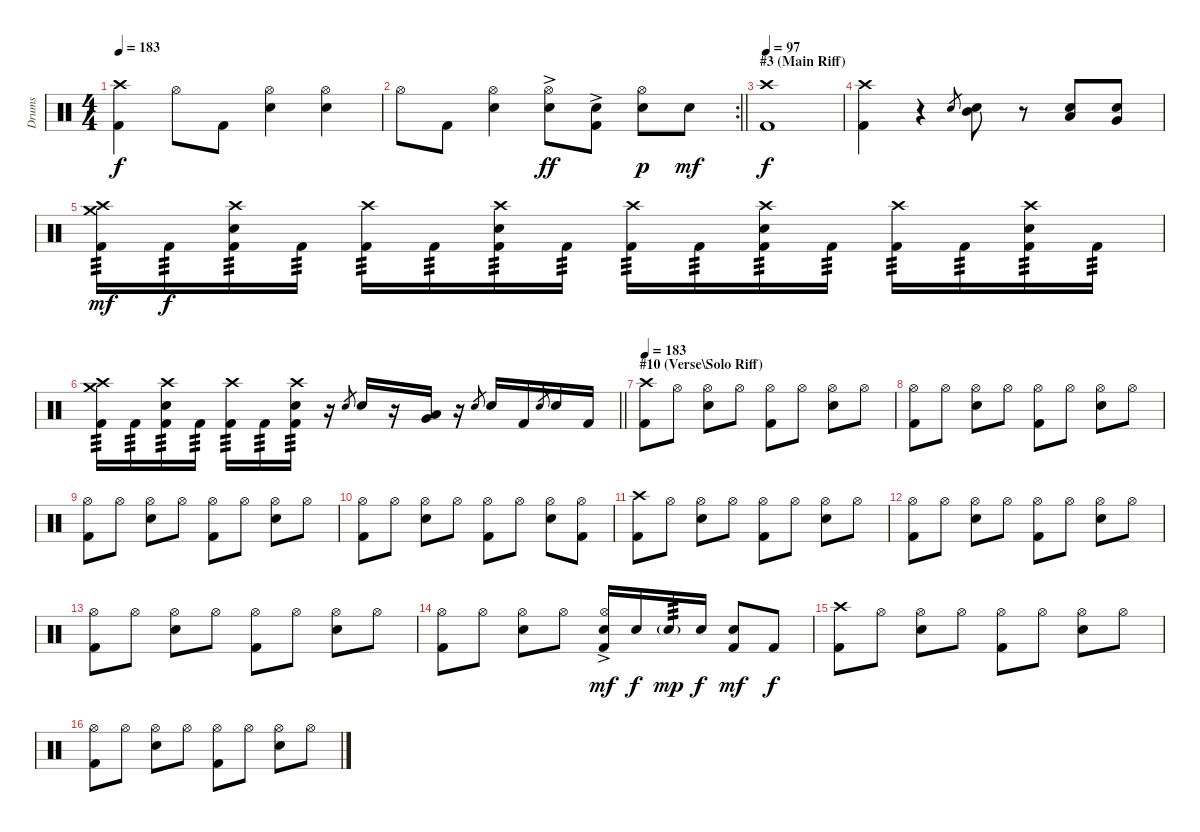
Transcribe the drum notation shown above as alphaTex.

\track ("Drums" "Drums") {instrument percussion}
\staff {score}
\articulation defaults
\ts (4 4)
\tempo 183
\clef neutral
\ks c
("Crash high (hit)" "Kick (hit) 2").4{dy f} "Hi-Hat (open)".8 "Kick (hit) 2".8 ("Hi-Hat (open)" "Electric Snare (hit)").4 ("Hi-Hat (open)" "Electric Snare (hit)").4 |
\rc 2
\barLineRight lightlight "Hi-Hat (open)".8 "Kick (hit) 2".8
("Hi-Hat (open)" "Electric Snare (hit)").4 ("Hi-Hat (open)" "Electric Snare (hit)"{ac}).8{dy ff} ("Electric Snare (hit)"{ac} "Kick (hit) 2").8 ("Hi-Hat (open)" "Electric Snare (hit)").8{dy p} "Electric Snare (hit)".8{dy mf} |
\section ("" "#3 (Main Riff)")
\tempo 97
("Crash high (hit)" "Kick (hit) 2").1{dy f} |
("Crash high (hit)" "Kick (hit) 2").4 r.4 "Electric Snare (hit)".8{gr} ("Electric Snare (hit)" "Mid Tom (hit)").8 r.8 ("Electric Snare (hit)" "Low Tom (hit)").8 ("Electric Snare (hit)" "Very Low Tom (hit)").8 |
("Crash high (hit)" "Crash medium (hit)" "Kick (hit) 2").16{tp 3 dy mf} "Kick (hit) 2".16{tp 3 dy f} ("Crash high (hit)" "Electric Snare (hit)" "Kick (hit) 2").16{tp 3} "Kick (hit) 2".16{tp 3} ("Crash high (hit)" "Kick (hit) 2").16{tp 3} "Kick (hit) 2".16{tp 3} ("Crash high (hit)" "Electric Snare (hit)" "Kick (hit) 2").16{tp 3} "Kick (hit) 2".16{tp 3} ("Crash high (hit)" "Kick (hit) 2").16{tp 3} "Kick (hit) 2".16{tp 3} ("Crash high (hit)" "Electric Snare (hit)" "Kick (hit) 2").16{tp 3} "Kick (hit) 2".16{tp 3} ("Crash high (hit)" "Kick (hit) 2").16{tp 3} "Kick (hit) 2".16{tp 3} ("Crash high (hit)" "Electric Snare (hit)" "Kick (hit) 2").16{tp 3} "Kick (hit) 2".16{tp 3} |
\barLineRight lightlight
("Crash high (hit)" "Crash medium (hit)" "Kick (hit) 2").16{tp 3} "Kick (hit) 2".16{tp 3} ("Crash high (hit)" "Electric Snare (hit)" "Kick (hit) 2").16{tp 3} "Kick (hit) 2".16{tp 3} ("Crash high (hit)" "Kick (hit) 2").16{tp 3} "Kick (hit) 2".16{tp 3} ("Crash high (hit)" "Electric Snare (hit)" "Kick (hit) 2").16{tp 3} r.16 "Electric Snare (hit)".8{gr} "Electric Snare (hit)".16 r.16 ("Very Low Tom (hit)" "Low Tom (hit)").16 r.16 "Electric Snare (hit)".8{gr} "Electric Snare (hit)".16 "Kick (hit) 2".16 "Electric Snare (hit)".8{gr} "Electric Snare (hit)".16 "Kick (hit) 2".16 |
\section ("" "#10 (Verse\\Solo Riff) ")
\tempo 183
("Crash high (hit)" "Kick (hit) 2").8 "Hi-Hat (open)".8 ("Hi-Hat (open)" "Electric Snare (hit)").8 "Hi-Hat (open)".8 ("Hi-Hat (open)" "Kick (hit) 2").8 "Hi-Hat (open)".8 ("Hi-Hat (open)" "Electric Snare (hit)").8 "Hi-Hat (open)".8 |
("Hi-Hat (open)" "Kick (hit) 2").8 "Hi-Hat (open)".8 ("Hi-Hat (open)" "Electric Snare (hit)").8 "Hi-Hat (open)".8 ("Hi-Hat (open)" "Kick (hit) 2").8 "Hi-Hat (open)".8 ("Hi-Hat (open)" "Electric Snare (hit)").8 "Hi-Hat (open)".8 |
("Hi-Hat (open)" "Kick (hit) 2").8 "Hi-Hat (open)".8 ("Hi-Hat (open)" "Electric Snare (hit)").8 "Hi-Hat (open)".8 ("Hi-Hat (open)" "Kick (hit) 2").8 "Hi-Hat (open)".8 ("Hi-Hat (open)" "Electric Snare (hit)").8 "Hi-Hat (open)".8 |
("Hi-Hat (open)" "Kick (hit) 2").8 "Hi-Hat (open)".8 ("Hi-Hat (open)" "Electric Snare (hit)").8 "Hi-Hat (open)".8 ("Hi-Hat (open)" "Kick (hit) 2").8 "Hi-Hat (open)".8 ("Hi-Hat (open)" "Electric Snare (hit)").8 ("Hi-Hat (open)" "Kick (hit) 2").8 |
("Crash high (hit)" "Kick (hit) 2").8 "Hi-Hat (open)".8 ("Hi-Hat (open)" "Electric Snare (hit)").8 "Hi-Hat (open)".8 ("Hi-Hat (open)" "Kick (hit) 2").8 "Hi-Hat (open)".8 ("Hi-Hat (open)" "Electric Snare (hit)").8 "Hi-Hat (open)".8 |
("Hi-Hat (open)" "Kick (hit) 2").8 "Hi-Hat (open)".8 ("Hi-Hat (open)" "Electric Snare (hit)").8 "Hi-Hat (open)".8 ("Hi-Hat (open)" "Kick (hit) 2").8 "Hi-Hat (open)".8 ("Hi-Hat (open)" "Electric Snare (hit)").8 "Hi-Hat (open)".8 |
("Hi-Hat (open)" "Kick (hit) 2").8 "Hi-Hat (open)".8 ("Hi-Hat (open)" "Electric Snare (hit)").8 "Hi-Hat (open)".8 ("Hi-Hat (open)" "Kick (hit) 2").8 "Hi-Hat (open)".8 ("Hi-Hat (open)" "Electric Snare (hit)").8 "Hi-Hat (open)".8 |
("Hi-Hat (open)" "Kick (hit) 2").8 "Hi-Hat (open)".8 ("Hi-Hat (open)" "Electric Snare (hit)").8 "Hi-Hat (open)".8 ("Hi-Hat (open)" "Electric Snare (hit)"{ac} "Kick (hit) 2").16{dy mf} "Electric Snare (hit)".16{dy f} "Electric Snare (hit)"{g}.16{tp 3 dy mp} "Electric Snare (hit)".16{dy f} ("Electric Snare (hit)" "Kick (hit) 2").8{dy mf} "Kick (hit) 2".8{dy f} |
("Crash high (hit)" "Kick (hit) 2").8 "Hi-Hat (open)".8 ("Hi-Hat (open)" "Electric Snare (hit)").8 "Hi-Hat (open)".8 ("Hi-Hat (open)" "Kick (hit) 2").8 "Hi-Hat (open)".8 ("Hi-Hat (open)" "Electric Snare (hit)").8 "Hi-Hat (open)".8 |
("Hi-Hat (open)" "Kick (hit) 2").8 "Hi-Hat (open)".8 ("Hi-Hat (open)" "Electric Snare (hit)").8 "Hi-Hat (open)".8 ("Hi-Hat (open)" "Kick (hit) 2").8 "Hi-Hat (open)".8 ("Hi-Hat (open)" "Electric Snare (hit)").8 "Hi-Hat (open)".8
